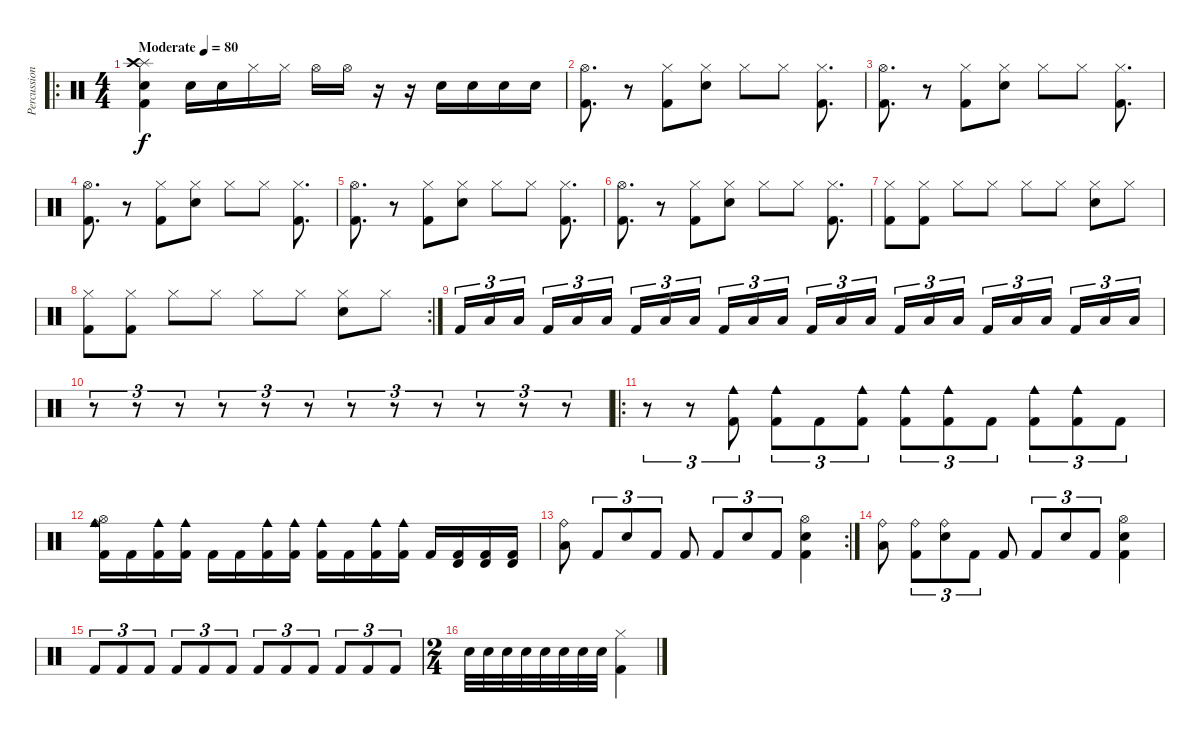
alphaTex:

\track ("Percussion" "Percussion") {instrument percussion}
\staff {score}
\articulation defaults
\ro
\ts (4 4)
\tempo (80 "Moderate")
\clef neutral
\ks c
("Kick (hit) 2" "Snare (hit) 2" "Splash (hit)" "Crash high (hit)").4{dy f} "Snare (hit) 2".16 "Snare (hit) 2".16 "Hi-Hat (closed)".16 "Hi-Hat (closed)".16 "Hi-Hat (open)".16 "Hi-Hat (open)".16 r.16 r.16 "Snare (hit) 2".16 "Snare (hit) 2".16 "Snare (hit) 2".16 "Snare (hit) 2".16 |
("Kick (hit) 2" "Hi-Hat (open)").8{d} r.8 ("Kick (hit) 2" "Hi-Hat (closed)").8 ("Snare (hit) 2" "Hi-Hat (closed)").8 "Hi-Hat (closed)".8 "Hi-Hat (closed)".8 ("Kick (hit) 2" "Hi-Hat (closed)").8{d} |
("Kick (hit) 2" "Hi-Hat (open)").8{d} r.8 ("Kick (hit) 2" "Hi-Hat (closed)").8 ("Snare (hit) 2" "Hi-Hat (closed)").8 "Hi-Hat (closed)".8 "Hi-Hat (closed)".8 ("Kick (hit) 2" "Hi-Hat (closed)").8{d} |
("Kick (hit) 2" "Hi-Hat (open)").8{d} r.8 ("Kick (hit) 2" "Hi-Hat (closed)").8 ("Snare (hit) 2" "Hi-Hat (closed)").8 "Hi-Hat (closed)".8 "Hi-Hat (closed)".8 ("Kick (hit) 2" "Hi-Hat (closed)").8{d} |
("Kick (hit) 2" "Hi-Hat (open)").8{d} r.8 ("Kick (hit) 2" "Hi-Hat (closed)").8 ("Snare (hit) 2" "Hi-Hat (closed)").8 "Hi-Hat (closed)".8 "Hi-Hat (closed)".8 ("Kick (hit) 2" "Hi-Hat (closed)").8{d} |
("Kick (hit) 2" "Hi-Hat (open)").8{d} r.8 ("Kick (hit) 2" "Hi-Hat (closed)").8 ("Snare (hit) 2" "Hi-Hat (closed)").8 "Hi-Hat (closed)".8 "Hi-Hat (closed)".8 ("Kick (hit) 2" "Hi-Hat (closed)").8{d} |
("Kick (hit) 2" "Hi-Hat (closed)").8 ("Kick (hit) 2" "Hi-Hat (closed)").8 "Hi-Hat (closed)".8 "Hi-Hat (closed)".8 "Hi-Hat (closed)".8 "Hi-Hat (closed)".8 ("Snare (hit) 2" "Hi-Hat (closed)").8 "Hi-Hat (closed)".8 |
\rc 2
("Kick (hit) 2" "Hi-Hat (closed)").8 ("Kick (hit) 2" "Hi-Hat (closed)").8 "Hi-Hat (closed)".8 "Hi-Hat (closed)".8 "Hi-Hat (closed)".8 "Hi-Hat (closed)".8 ("Snare (hit) 2" "Hi-Hat (closed)").8 "Hi-Hat (closed)".8 |
"Kick (hit) 2".16{tu (3 2)} "Low Tom (hit)".16{tu (3 2)} "Low Floor Tom (hit)".16{tu (3 2) beam splitsecondary} "Kick (hit) 2".16{tu (3 2)} "Low Tom (hit)".16{tu (3 2)} "Low Floor Tom (hit)".16{tu (3 2)} "Kick (hit) 2".16{tu (3 2)} "Low Tom (hit)".16{tu (3 2)} "Low Floor Tom (hit)".16{tu (3 2) beam splitsecondary} "Kick (hit) 2".16{tu (3 2)} "Low Tom (hit)".16{tu (3 2)} "Low Floor Tom (hit)".16{tu (3 2)} "Kick (hit) 2".16{tu (3 2)} "Low Tom (hit)".16{tu (3 2)} "Low Floor Tom (hit)".16{tu (3 2) beam splitsecondary} "Kick (hit) 2".16{tu (3 2)} "Low Tom (hit)".16{tu (3 2)} "Low Floor Tom (hit)".16{tu (3 2)} "Kick (hit) 2".16{tu (3 2)} "Low Tom (hit)".16{tu (3 2)} "Low Floor Tom (hit)".16{tu (3 2) beam splitsecondary} "Kick (hit) 2".16{tu (3 2)} "Low Tom (hit)".16{tu (3 2)} "Low Floor Tom (hit)".16{tu (3 2)} |
r.8{tu (3 2)} r.8{tu (3 2)} r.8{tu (3 2)} r.8{tu (3 2)} r.8{tu (3 2)} r.8{tu (3 2)} r.8{tu (3 2)} r.8{tu (3 2)} r.8{tu (3 2)} r.8{tu (3 2)} r.8{tu (3 2)} r.8{tu (3 2)} |
\ro
r.8{tu (3 2)} r.8{tu (3 2)} ("Kick (hit) 2" "Cowbell medium (hit)").8{tu (3 2)} ("Kick (hit) 2" "Cowbell medium (hit)").8{tu (3 2)} "Kick (hit) 2".8{tu (3 2)} ("Kick (hit) 2" "Cowbell medium (hit)").8{tu (3 2)} ("Kick (hit) 2" "Cowbell medium (hit)").8{tu (3 2)} ("Kick (hit) 2" "Cowbell medium (hit)").8{tu (3 2)} "Kick (hit) 2".8{tu (3 2)} ("Kick (hit) 2" "Cowbell medium (hit)").8{tu (3 2)} ("Kick (hit) 2" "Cowbell medium (hit)").8{tu (3 2)} "Kick (hit) 2".8{tu (3 2)} |
("Kick (hit) 2" "Ride (bell)" "Hi-Hat (open)" "Cowbell medium (hit)").16 "Kick (hit) 2".16 ("Kick (hit) 2" "Cowbell medium (hit)").16 ("Kick (hit) 2" "Cowbell medium (hit)").16 "Kick (hit) 2".16 "Kick (hit) 2".16 ("Kick (hit) 2" "Cowbell medium (hit)").16 ("Kick (hit) 2" "Cowbell medium (hit)").16 ("Kick (hit) 2" "Cowbell medium (hit)").16 "Kick (hit) 2".16 ("Kick (hit) 2" "Cowbell medium (hit)").16 ("Kick (hit) 2" "Cowbell medium (hit)").16 "Kick (hit) 2".16 ("Kick (hit) 2" "Timbale high (hit)").16 ("Kick (hit) 2" "Timbale high (hit)").16 ("Kick (hit) 2" "Timbale high (hit)").16 |
\rc 2
("Ride (bell)" "Low Floor Tom (hit)").8 "Kick (hit) 2".8{tu (3 2)} "Snare (hit) 2".8{tu (3 2)} "Kick (hit) 2".8{tu (3 2)} "Kick (hit) 2".8 "Kick (hit) 2".8{tu (3 2)} "Snare (hit) 2".8{tu (3 2)} "Kick (hit) 2".8{tu (3 2)} ("Hi-Hat (open)" "Kick (hit) 2" "Snare (hit) 2").4 |
("Ride (bell)" "Low Floor Tom (hit)").8 ("Ride (bell)" "Kick (hit) 2").8{tu (3 2)} ("Ride (bell)" "Snare (hit) 2").8{tu (3 2)} "Kick (hit) 2".8{tu (3 2)} "Kick (hit) 2".8 "Kick (hit) 2".8{tu (3 2)} "Snare (hit) 2".8{tu (3 2)} "Kick (hit) 2".8{tu (3 2)} ("Hi-Hat (open)" "Kick (hit) 2" "Snare (hit) 2").4 |
"Kick (hit) 2".8{tu (3 2)} "Kick (hit) 2".8{tu (3 2)} "Kick (hit) 2".8{tu (3 2)} "Kick (hit) 2".8{tu (3 2)} "Kick (hit) 2".8{tu (3 2)} "Kick (hit) 2".8{tu (3 2)} "Kick (hit) 2".8{tu (3 2)} "Kick (hit) 2".8{tu (3 2)} "Kick (hit) 2".8{tu (3 2)} "Kick (hit) 2".8{tu (3 2)} "Kick (hit) 2".8{tu (3 2)} "Kick (hit) 2".8{tu (3 2)} |
\ts (2 4)
"Snare (hit) 2".32 "Snare (hit) 2".32 "Snare (hit) 2".32 "Snare (hit) 2".32 "Snare (hit) 2".32 "Snare (hit) 2".32 "Snare (hit) 2".32 "Snare (hit) 2".32 ("Hi-Hat (closed)" "Kick (hit) 2").4
